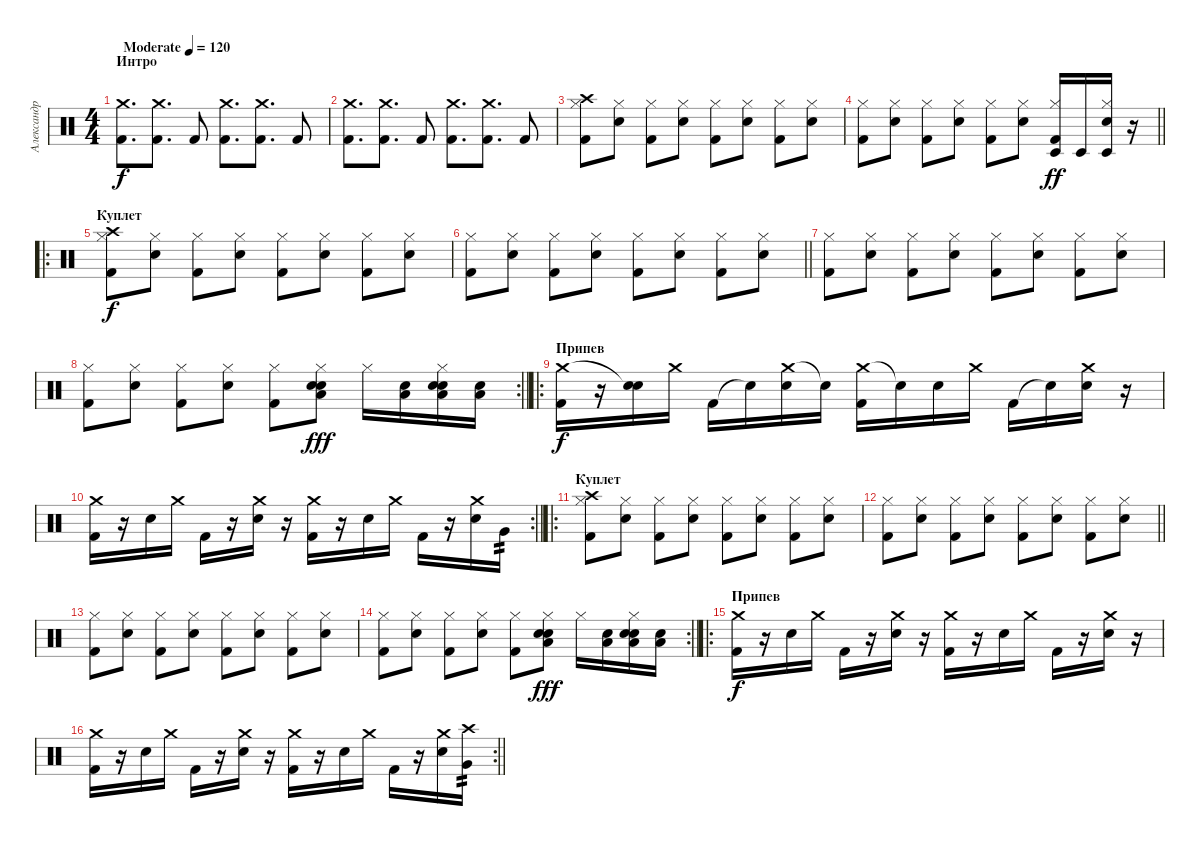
\track ("Александр Якушев" "Александр ") {instrument percussion}
\staff {score}
\articulation defaults
\ts (4 4)
\section ("" "Интро")
\tempo (120 "Moderate")
\clef neutral
\ks c
("Crash medium (hit)" "Kick (hit) 2").8{d dy f} ("Crash medium (hit)" "Kick (hit) 2").8{d} "Kick (hit) 2".8 ("Crash medium (hit)" "Kick (hit) 2").8{d} ("Crash medium (hit)" "Kick (hit) 2").8{d} "Kick (hit) 2".8 |
("Crash medium (hit)" "Kick (hit) 2").8{d} ("Crash medium (hit)" "Kick (hit) 2").8{d} "Kick (hit) 2".8 ("Crash medium (hit)" "Kick (hit) 2").8{d} ("Crash medium (hit)" "Kick (hit) 2").8{d} "Kick (hit) 2".8 |
("Hi-Hat (closed)" "Crash high (hit)" "Kick (hit) 2").8 ("Hi-Hat (closed)" "Snare (hit) 2").8 ("Hi-Hat (closed)" "Kick (hit) 2").8 ("Hi-Hat (closed)" "Snare (hit) 2").8 ("Hi-Hat (closed)" "Kick (hit) 2").8 ("Hi-Hat (closed)" "Snare (hit) 2").8 ("Hi-Hat (closed)" "Kick (hit) 2").8 ("Hi-Hat (closed)" "Snare (hit) 2").8 |
\barLineRight lightlight
("Hi-Hat (closed)" "Kick (hit) 2").8 ("Hi-Hat (closed)" "Snare (hit) 2").8 ("Hi-Hat (closed)" "Kick (hit) 2").8 ("Hi-Hat (closed)" "Snare (hit) 2").8 ("Hi-Hat (closed)" "Kick (hit) 2").8 ("Hi-Hat (closed)" "Snare (hit) 2").8 ("Hi-Hat (closed)" "Timbale low (hit)" "Kick (hit) 2").16{dy ff} "Timbale low (hit)".16 ("Hi-Hat (closed)" "Timbale low (hit)" "Snare (hit) 2").16 r.16 |
\ro
\section ("" "Куплет")
("Hi-Hat (closed)" "Crash high (hit)" "Kick (hit) 2").8{dy f} ("Hi-Hat (closed)" "Snare (hit) 2").8 ("Hi-Hat (closed)" "Kick (hit) 2").8 ("Hi-Hat (closed)" "Snare (hit) 2").8 ("Hi-Hat (closed)" "Kick (hit) 2").8 ("Hi-Hat (closed)" "Snare (hit) 2").8 ("Hi-Hat (closed)" "Kick (hit) 2").8 ("Hi-Hat (closed)" "Snare (hit) 2").8 |
\barLineRight lightlight
("Hi-Hat (closed)" "Kick (hit) 2").8 ("Hi-Hat (closed)" "Snare (hit) 2").8 ("Hi-Hat (closed)" "Kick (hit) 2").8 ("Hi-Hat (closed)" "Snare (hit) 2").8 ("Hi-Hat (closed)" "Kick (hit) 2").8 ("Hi-Hat (closed)" "Snare (hit) 2").8 ("Hi-Hat (closed)" "Kick (hit) 2").8 ("Hi-Hat (closed)" "Snare (hit) 2").8 |
("Hi-Hat (closed)" "Kick (hit) 2").8 ("Hi-Hat (closed)" "Snare (hit) 2").8 ("Hi-Hat (closed)" "Kick (hit) 2").8 ("Hi-Hat (closed)" "Snare (hit) 2").8 ("Hi-Hat (closed)" "Kick (hit) 2").8 ("Hi-Hat (closed)" "Snare (hit) 2").8 ("Hi-Hat (closed)" "Kick (hit) 2").8 ("Hi-Hat (closed)" "Snare (hit) 2").8 |
\rc 2
\barLineRight lightlight
("Hi-Hat (closed)" "Kick (hit) 2").8 ("Hi-Hat (closed)" "Snare (hit) 2").8 ("Hi-Hat (closed)" "Kick (hit) 2").8 ("Hi-Hat (closed)" "Snare (hit) 2").8 ("Hi-Hat (closed)" "Kick (hit) 2").8 ("Hi-Hat (closed)" "Low Floor Tom (hit)" "Electric Snare (hit)" "Snare (hit) 2").8{dy fff} "Hi-Hat (closed)".16 ("Low Floor Tom (hit)" "Electric Snare (hit)").16 ("Hi-Hat (closed)" "Low Floor Tom (hit)" "Electric Snare (hit)" "Snare (hit) 2").16 ("Low Floor Tom (hit)" "Electric Snare (hit)").16 |
\ro
\section ("" "Припев")
("Crash medium (hit)" "Kick (hit) 2").16{dy f} r.16 ("Snare (hit)"{t} "Snare (hit) 2").16 "Crash medium (hit)".16 "Kick (hit) 2".16 "Snare (hit)"{t}.16 ("Crash medium (hit)" "Snare (hit) 2").16 "Snare (hit)"{t}.16 ("Crash medium (hit)" "Kick (hit) 2").16 "Snare (hit)"{t}.16 "Snare (hit) 2".16 "Crash medium (hit)".16 "Kick (hit) 2".16 "Snare (hit)"{t}.16 ("Crash medium (hit)" "Snare (hit) 2").16 r.16 |
\rc 2
\barLineRight lightlight
("Crash medium (hit)" "Kick (hit) 2").16 r.16 "Snare (hit) 2".16 "Crash medium (hit)".16 "Kick (hit) 2".16 r.16 ("Crash medium (hit)" "Snare (hit) 2").16 r.16 ("Crash medium (hit)" "Kick (hit) 2").16 r.16 "Snare (hit) 2".16 "Crash medium (hit)".16 "Kick (hit) 2".16 r.16 ("Crash medium (hit)" "Snare (hit) 2").16 "Very Low Tom (hit)".16{tp 2} |
\ro
\section ("" "Куплет")
("Hi-Hat (closed)" "Crash high (hit)" "Kick (hit) 2").8 ("Hi-Hat (closed)" "Snare (hit) 2").8 ("Hi-Hat (closed)" "Kick (hit) 2").8 ("Hi-Hat (closed)" "Snare (hit) 2").8 ("Hi-Hat (closed)" "Kick (hit) 2").8 ("Hi-Hat (closed)" "Snare (hit) 2").8 ("Hi-Hat (closed)" "Kick (hit) 2").8 ("Hi-Hat (closed)" "Snare (hit) 2").8 |
\barLineRight lightlight
("Hi-Hat (closed)" "Kick (hit) 2").8 ("Hi-Hat (closed)" "Snare (hit) 2").8 ("Hi-Hat (closed)" "Kick (hit) 2").8 ("Hi-Hat (closed)" "Snare (hit) 2").8 ("Hi-Hat (closed)" "Kick (hit) 2").8 ("Hi-Hat (closed)" "Snare (hit) 2").8 ("Hi-Hat (closed)" "Kick (hit) 2").8 ("Hi-Hat (closed)" "Snare (hit) 2").8 |
("Hi-Hat (closed)" "Kick (hit) 2").8 ("Hi-Hat (closed)" "Snare (hit) 2").8 ("Hi-Hat (closed)" "Kick (hit) 2").8 ("Hi-Hat (closed)" "Snare (hit) 2").8 ("Hi-Hat (closed)" "Kick (hit) 2").8 ("Hi-Hat (closed)" "Snare (hit) 2").8 ("Hi-Hat (closed)" "Kick (hit) 2").8 ("Hi-Hat (closed)" "Snare (hit) 2").8 |
\rc 2
\barLineRight lightlight
("Hi-Hat (closed)" "Kick (hit) 2").8 ("Hi-Hat (closed)" "Snare (hit) 2").8 ("Hi-Hat (closed)" "Kick (hit) 2").8 ("Hi-Hat (closed)" "Snare (hit) 2").8 ("Hi-Hat (closed)" "Kick (hit) 2").8 ("Hi-Hat (closed)" "Low Floor Tom (hit)" "Electric Snare (hit)" "Snare (hit) 2").8{dy fff} "Hi-Hat (closed)".16 ("Low Floor Tom (hit)" "Electric Snare (hit)").16 ("Hi-Hat (closed)" "Low Floor Tom (hit)" "Electric Snare (hit)" "Snare (hit) 2").16 ("Low Floor Tom (hit)" "Electric Snare (hit)").16 |
\ro
\section ("" "Припев")
("Crash medium (hit)" "Kick (hit) 2").16{dy f} r.16 "Snare (hit) 2".16 "Crash medium (hit)".16 "Kick (hit) 2".16 r.16 ("Crash medium (hit)" "Snare (hit) 2").16 r.16 ("Crash medium (hit)" "Kick (hit) 2").16 r.16 "Snare (hit) 2".16 "Crash medium (hit)".16 "Kick (hit) 2".16 r.16 ("Crash medium (hit)" "Snare (hit) 2").16 r.16 |
\rc 2
\barLineRight lightlight
("Crash medium (hit)" "Kick (hit) 2").16 r.16 "Snare (hit) 2".16 "Crash medium (hit)".16 "Kick (hit) 2".16 r.16 ("Crash medium (hit)" "Snare (hit) 2").16 r.16 ("Crash medium (hit)" "Kick (hit) 2").16 r.16 "Snare (hit) 2".16 "Crash medium (hit)".16 "Kick (hit) 2".16 r.16 ("Crash medium (hit)" "Snare (hit) 2").16 ("Crash high (hit)" "Very Low Tom (hit)").16{tp 2}
